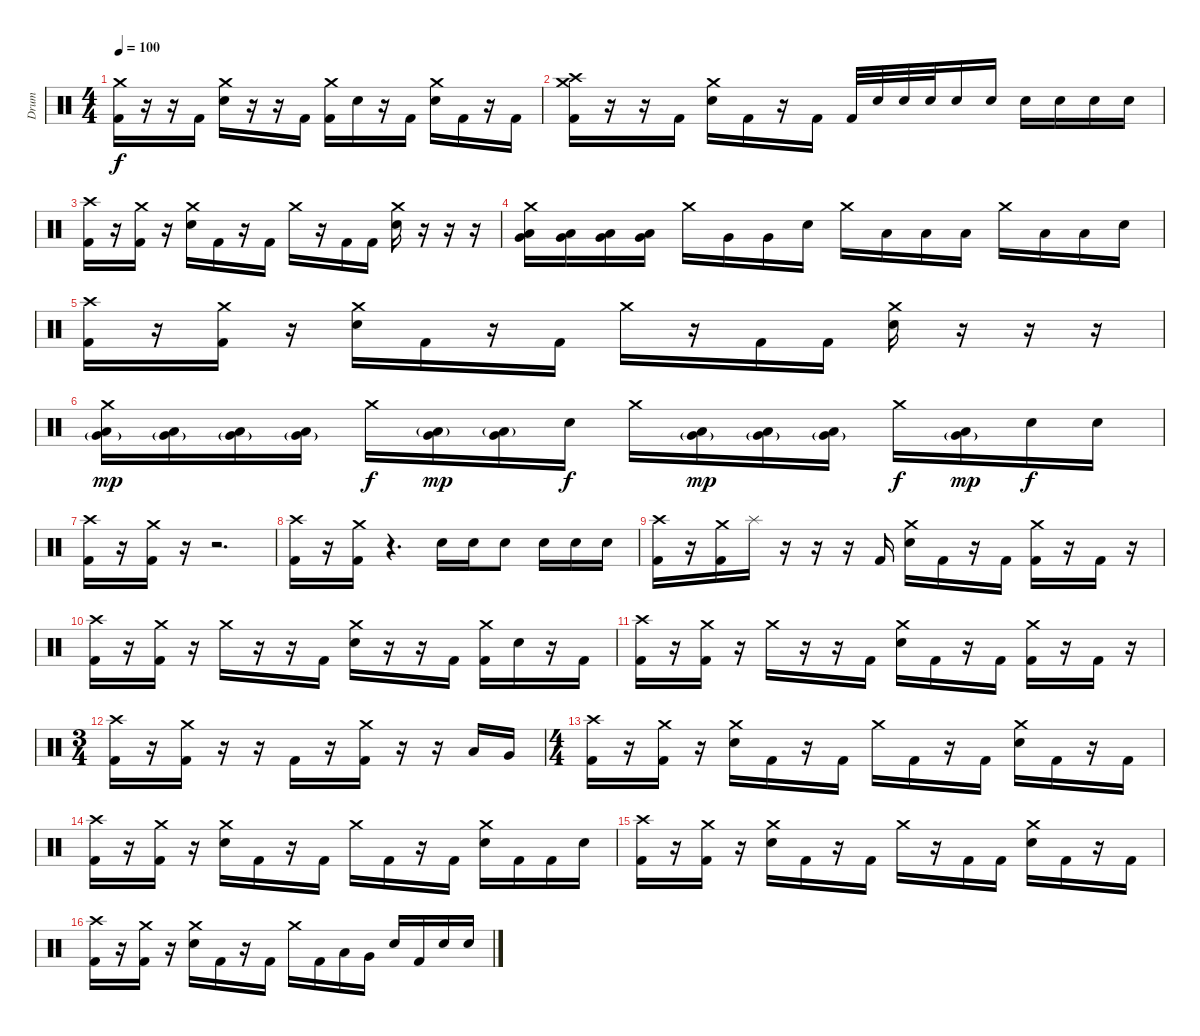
\track ("Drum" "Drum") {instrument percussion}
\staff {score}
\articulation defaults
\ts (4 4)
\tempo 100
\clef neutral
\ks c
("Crash medium (hit)" "Kick (hit) 2").16{dy f} r.16 r.16 "Kick (hit) 2".16 ("Crash medium (hit)" "Electric Snare (hit)").16 r.16 r.16 "Kick (hit) 2".16 ("Crash medium (hit)" "Kick (hit) 2").16 "Electric Snare (hit)".16 r.16 "Kick (hit) 2".16 ("Crash medium (hit)" "Electric Snare (hit)").16 "Kick (hit) 2".16 r.16 "Kick (hit) 2".16 |
("Crash medium (hit)" "Crash high (hit)" "Kick (hit) 2").16 r.16 r.16 "Kick (hit) 2".16 ("Crash medium (hit)" "Electric Snare (hit)").16 "Kick (hit) 2".16 r.16 "Kick (hit) 2".16 "Kick (hit) 2".32 "Electric Snare (hit)".32 "Electric Snare (hit)".32 "Electric Snare (hit)".32 "Electric Snare (hit)".16 "Electric Snare (hit)".16 "Electric Snare (hit)".16 "Electric Snare (hit)".16 "Electric Snare (hit)".16 "Electric Snare (hit)".16 |
("Crash high (hit)" "Kick (hit) 2").16 r.16 ("Crash medium (hit)" "Kick (hit) 2").16 r.16 ("Crash medium (hit)" "Electric Snare (hit)").16 "Kick (hit) 2".16 r.16 "Kick (hit) 2".16 "Crash medium (hit)".16 r.16 "Kick (hit) 2".16 "Kick (hit) 2".16 ("Crash medium (hit)" "Electric Snare (hit)").16 r.16 r.16 r.16 |
("Crash medium (hit)" "Very Low Tom (hit)" "Low Tom (hit)").16 ("Very Low Tom (hit)" "Low Tom (hit)").16 ("Very Low Tom (hit)" "Low Tom (hit)").16 ("Very Low Tom (hit)" "Low Tom (hit)").16 "Crash medium (hit)".16 "Very Low Tom (hit)".16 "Very Low Tom (hit)".16 "Electric Snare (hit)".16 "Crash medium (hit)".16 "Low Tom (hit)".16 "Low Tom (hit)".16 "Low Tom (hit)".16 "Crash medium (hit)".16 "Low Tom (hit)".16 "Low Tom (hit)".16 "Electric Snare (hit)".16 |
("Crash high (hit)" "Kick (hit) 2").16 r.16 ("Crash medium (hit)" "Kick (hit) 2").16 r.16 ("Crash medium (hit)" "Electric Snare (hit)").16 "Kick (hit) 2".16 r.16 "Kick (hit) 2".16 "Crash medium (hit)".16 r.16 "Kick (hit) 2".16 "Kick (hit) 2".16 ("Crash medium (hit)" "Electric Snare (hit)").16 r.16 r.16 r.16 |
("Crash medium (hit)" "Very Low Tom (hit)"{g} "Low Tom (hit)").16{dy mp} ("Very Low Tom (hit)"{g} "Low Tom (hit)").16 ("Very Low Tom (hit)"{g} "Low Tom (hit)").16 ("Very Low Tom (hit)"{g} "Low Tom (hit)").16 "Crash medium (hit)".16{dy f} ("Low Tom (hit)"{g} "Very Low Tom (hit)").16{dy mp} ("Low Tom (hit)"{g} "Very Low Tom (hit)").16 "Electric Snare (hit)".16{dy f} "Crash medium (hit)".16 ("Very Low Tom (hit)"{g} "Low Tom (hit)").16{dy mp} ("Very Low Tom (hit)"{g} "Low Tom (hit)").16 ("Very Low Tom (hit)"{g} "Low Tom (hit)").16 "Crash medium (hit)".16{dy f} ("Very Low Tom (hit)"{g} "Low Tom (hit)").16{dy mp} "Electric Snare (hit)".16{dy f} "Electric Snare (hit)".16 |
("Crash high (hit)" "Kick (hit) 2").16 r.16 ("Crash medium (hit)" "Kick (hit) 2").16 r.16 r.2{d} |
("Crash high (hit)" "Kick (hit) 2").16 r.16 ("Crash medium (hit)" "Kick (hit) 2").16 r.4{d} "Electric Snare (hit)".16 "Electric Snare (hit)".16 "Electric Snare (hit)".8 "Electric Snare (hit)".16 "Electric Snare (hit)".16 "Electric Snare (hit)".16 |
("Crash high (hit)" "Kick (hit) 2").16 r.16 ("Crash medium (hit)" "Kick (hit) 2").16 "Splash (hit)".16 r.16 r.16 r.16 "Kick (hit) 2".16 ("Crash medium (hit)" "Electric Snare (hit)").16 "Kick (hit) 2".16 r.16 "Kick (hit) 2".16 ("Crash medium (hit)" "Kick (hit) 2").16 r.16 "Kick (hit) 2".16 r.16 |
("Crash high (hit)" "Kick (hit) 2").16 r.16 ("Crash medium (hit)" "Kick (hit) 2").16 r.16 "Crash medium (hit)".16 r.16 r.16 "Kick (hit) 2".16 ("Crash medium (hit)" "Electric Snare (hit)").16 r.16 r.16 "Kick (hit) 2".16 ("Crash medium (hit)" "Kick (hit) 2").16 "Electric Snare (hit)".16 r.16 "Kick (hit) 2".16 |
("Crash high (hit)" "Kick (hit) 2").16 r.16 ("Crash medium (hit)" "Kick (hit) 2").16 r.16 "Crash medium (hit)".16 r.16 r.16 "Kick (hit) 2".16 ("Crash medium (hit)" "Electric Snare (hit)").16 "Kick (hit) 2".16 r.16 "Kick (hit) 2".16 ("Crash medium (hit)" "Kick (hit) 2").16 r.16 "Kick (hit) 2".16 r.16 |
\ts (3 4)
("Crash high (hit)" "Kick (hit) 2").16 r.16 ("Crash medium (hit)" "Kick (hit) 2").16 r.16 r.16 "Kick (hit) 2".16 r.16 ("Crash medium (hit)" "Kick (hit) 2").16 r.16 r.16 "Low Tom (hit)".16 "Very Low Tom (hit)".16 |
\ts (4 4)
("Crash high (hit)" "Kick (hit) 2").16 r.16 ("Crash medium (hit)" "Kick (hit) 2").16 r.16 ("Crash medium (hit)" "Electric Snare (hit)").16 "Kick (hit) 2".16 r.16 "Kick (hit) 2".16 "Crash medium (hit)".16 "Kick (hit) 2".16 r.16 "Kick (hit) 2".16 ("Crash medium (hit)" "Electric Snare (hit)").16 "Kick (hit) 2".16 r.16 "Kick (hit) 2".16 |
("Crash high (hit)" "Kick (hit) 2").16 r.16 ("Crash medium (hit)" "Kick (hit) 2").16 r.16 ("Crash medium (hit)" "Electric Snare (hit)").16 "Kick (hit) 2".16 r.16 "Kick (hit) 2".16 "Crash medium (hit)".16 "Kick (hit) 2".16 r.16 "Kick (hit) 2".16 ("Crash medium (hit)" "Electric Snare (hit)").16 "Kick (hit) 2".16 "Kick (hit) 2".16 "Electric Snare (hit)".16 |
("Crash high (hit)" "Kick (hit) 2").16 r.16 ("Crash medium (hit)" "Kick (hit) 2").16 r.16 ("Crash medium (hit)" "Electric Snare (hit)").16 "Kick (hit) 2".16 r.16 "Kick (hit) 2".16 "Crash medium (hit)".16 r.16 "Kick (hit) 2".16 "Kick (hit) 2".16 ("Crash medium (hit)" "Electric Snare (hit)").16 "Kick (hit) 2".16 r.16 "Kick (hit) 2".16 |
("Crash high (hit)" "Kick (hit) 2").16 r.16 ("Crash medium (hit)" "Kick (hit) 2").16 r.16 ("Crash medium (hit)" "Electric Snare (hit)").16 "Kick (hit) 2".16 r.16 "Kick (hit) 2".16 "Crash medium (hit)".16 "Kick (hit) 2".16 "Low Tom (hit)".16 "Very Low Tom (hit)".16 "Electric Snare (hit)".16 "Kick (hit) 2".16 "Electric Snare (hit)".16 "Electric Snare (hit)".16
